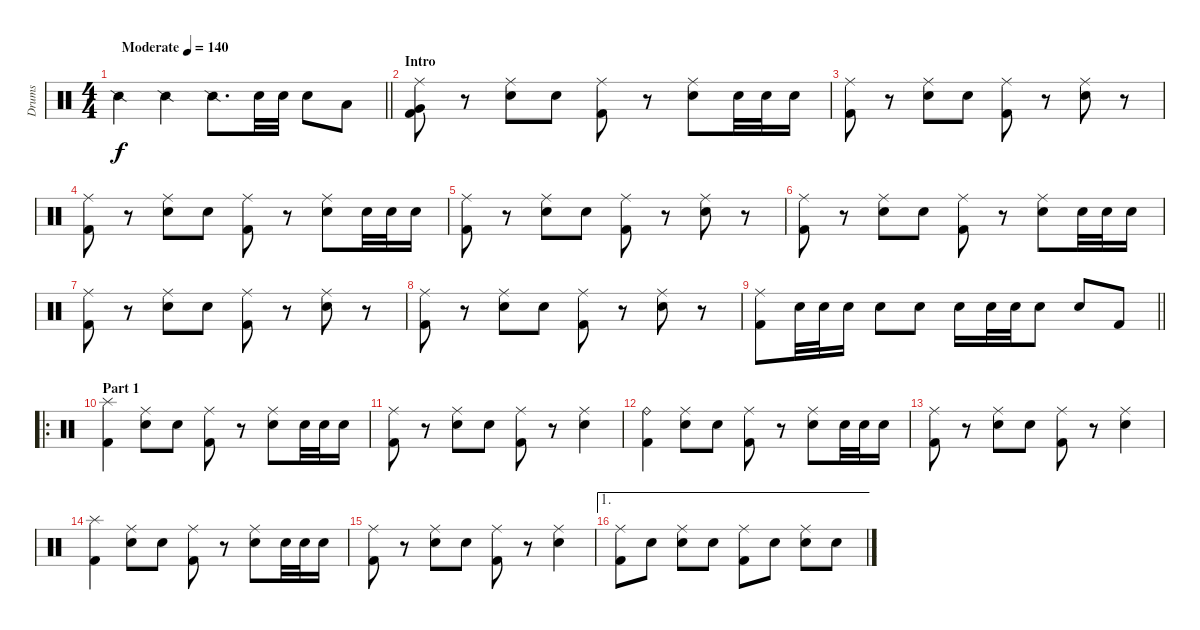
\track ("Drums" "Drums") {instrument percussion}
\staff {score}
\articulation defaults
\ts (4 4)
\tempo (140 "Moderate")
\clef neutral
\barLineRight lightlight
\ks c "Snare (side stick) 2".4{dy f} "Snare (side stick) 2".4 "Snare (side stick) 2".8{d} "Snare (hit) 2".32 "Snare (hit) 2".32 "Snare (hit) 2".8 "Low Tom (hit)".8
|
\section ("" "Intro")
("Ride (middle)" "Very Low Tom (hit)" "Kick (hit) 2").8 r.8 ("Ride (middle)" "Snare (hit) 2").8 "Snare (hit) 2".8 ("Ride (middle)" "Kick (hit) 2").8 r.8 ("Ride (middle)" "Snare (hit) 2").8 "Snare (hit) 2".32 "Snare (hit) 2".32 "Snare (hit) 2".16 |
("Ride (middle)" "Kick (hit) 2").8 r.8 ("Ride (middle)" "Snare (hit) 2").8 "Snare (hit) 2".8 ("Ride (middle)" "Kick (hit) 2").8 r.8 ("Ride (middle)" "Snare (hit) 2").8 r.8 |
("Ride (middle)" "Kick (hit) 2").8 r.8 ("Ride (middle)" "Snare (hit) 2").8 "Snare (hit) 2".8 ("Ride (middle)" "Kick (hit) 2").8 r.8 ("Ride (middle)" "Snare (hit) 2").8 "Snare (hit) 2".32 "Snare (hit) 2".32 "Snare (hit) 2".16 |
("Ride (middle)" "Kick (hit) 2").8 r.8 ("Ride (middle)" "Snare (hit) 2").8 "Snare (hit) 2".8 ("Ride (middle)" "Kick (hit) 2").8 r.8 ("Ride (middle)" "Snare (hit) 2").8 r.8 |
("Ride (middle)" "Kick (hit) 2").8 r.8 ("Ride (middle)" "Snare (hit) 2").8 "Snare (hit) 2".8 ("Ride (middle)" "Kick (hit) 2").8 r.8 ("Ride (middle)" "Snare (hit) 2").8 "Snare (hit) 2".32 "Snare (hit) 2".32 "Snare (hit) 2".16 |
("Ride (middle)" "Kick (hit) 2").8 r.8 ("Ride (middle)" "Snare (hit) 2").8 "Snare (hit) 2".8 ("Ride (middle)" "Kick (hit) 2").8 r.8 ("Ride (middle)" "Snare (hit) 2").8 r.8 |
("Ride (middle)" "Kick (hit) 2").8 r.8 ("Ride (middle)" "Snare (hit) 2").8 "Snare (hit) 2".8 ("Ride (middle)" "Kick (hit) 2").8 r.8 ("Ride (middle)" "Snare (hit) 2").8 r.8 |
\barLineRight lightlight
("Ride (middle)" "Kick (hit) 2").8 "Snare (hit) 2".32 "Snare (hit) 2".32 "Snare (hit) 2".16 "Snare (hit) 2".8 "Snare (hit) 2".8 "Snare (hit) 2".16 "Snare (hit) 2".32 "Snare (hit) 2".32 "Snare (hit) 2".8 "Snare (hit) 2".8 "Kick (hit) 2".8 |
\ro
\section ("" "Part 1")
("Splash (hit)" "Kick (hit) 2").4 ("Ride (middle)" "Snare (hit) 2").8 "Snare (hit) 2".8 ("Ride (middle)" "Kick (hit) 2").8 r.8 ("Ride (middle)" "Snare (hit) 2").8 "Snare (hit) 2".32 "Snare (hit) 2".32 "Snare (hit) 2".16 |
("Ride (middle)" "Kick (hit) 2").8 r.8 ("Ride (middle)" "Snare (hit) 2").8 "Snare (hit) 2".8 ("Ride (middle)" "Kick (hit) 2").8 r.8 ("Ride (middle)" "Snare (hit) 2").4 |
("Ride (bell)" "Kick (hit) 2").4 ("Ride (middle)" "Snare (hit) 2").8 "Snare (hit) 2".8 ("Ride (middle)" "Kick (hit) 2").8 r.8 ("Ride (middle)" "Snare (hit) 2").8 "Snare (hit) 2".32 "Snare (hit) 2".32 "Snare (hit) 2".16 |
("Ride (middle)" "Kick (hit) 2").8 r.8 ("Ride (middle)" "Snare (hit) 2").8 "Snare (hit) 2".8 ("Ride (middle)" "Kick (hit) 2").8 r.8 ("Ride (middle)" "Snare (hit) 2").4 |
("Splash (hit)" "Kick (hit) 2").4 ("Ride (middle)" "Snare (hit) 2").8 "Snare (hit) 2".8 ("Ride (middle)" "Kick (hit) 2").8 r.8 ("Ride (middle)" "Snare (hit) 2").8 "Snare (hit) 2".32 "Snare (hit) 2".32 "Snare (hit) 2".16 |
("Ride (middle)" "Kick (hit) 2").8 r.8 ("Ride (middle)" "Snare (hit) 2").8 "Snare (hit) 2".8 ("Ride (middle)" "Kick (hit) 2").8 r.8 ("Ride (middle)" "Snare (hit) 2").4 |
\ae 1
("Ride (middle)" "Kick (hit) 2").8 "Snare (hit) 2".8 ("Ride (middle)" "Snare (hit) 2").8 "Snare (hit) 2".8 ("Ride (middle)" "Kick (hit) 2").8 "Snare (hit) 2".8 ("Ride (middle)" "Snare (hit) 2").8 "Snare (hit) 2".8
